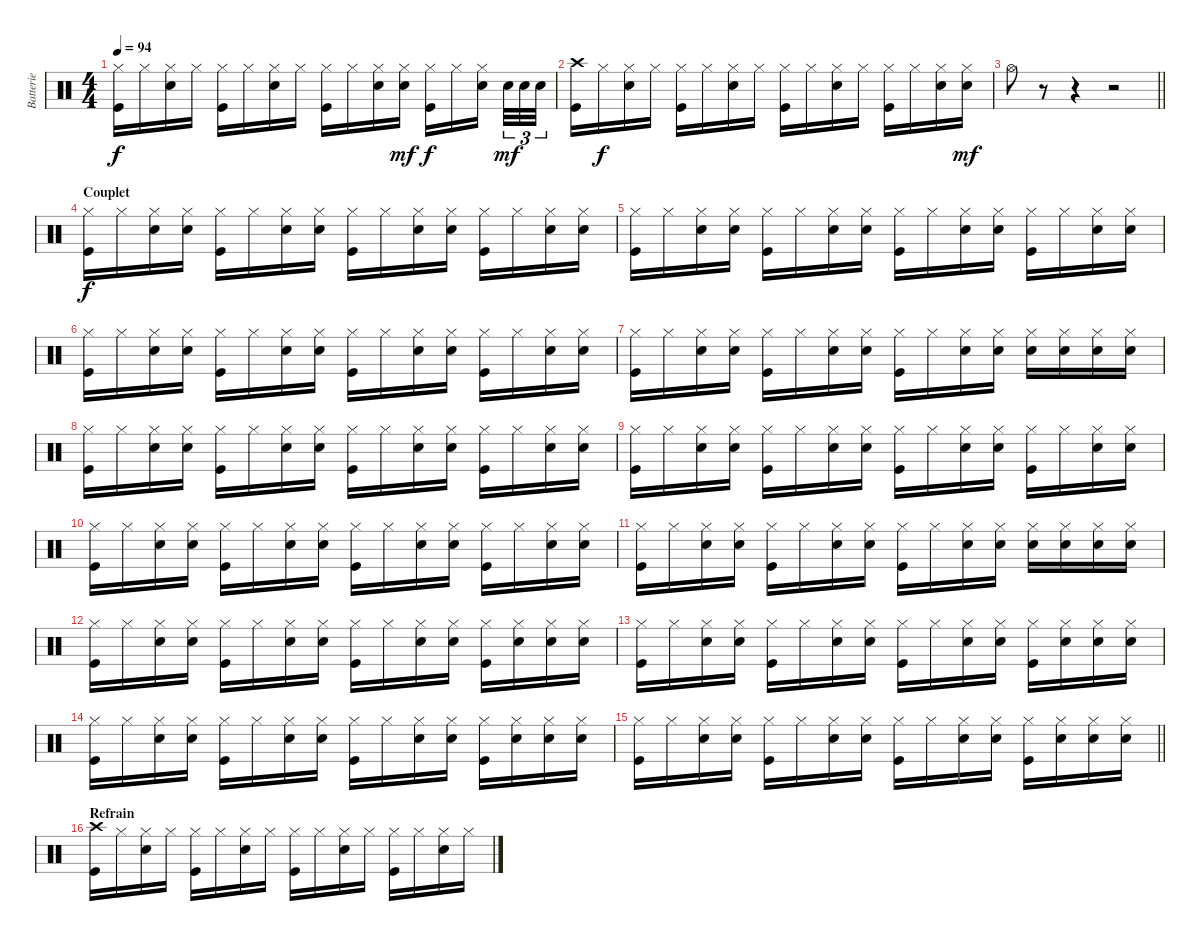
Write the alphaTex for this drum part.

\track ("Batterie" "Batterie") {instrument percussion}
\staff {score}
\articulation defaults
\ts (4 4)
\tempo 94
\clef neutral
\ks c
("Hi-Hat (closed)" "Kick (hit)").16{dy f} "Hi-Hat (closed)".16 ("Hi-Hat (closed)" "Snare (hit) 2").16 "Hi-Hat (closed)".16 ("Hi-Hat (closed)" "Kick (hit)").16 "Hi-Hat (closed)".16 ("Hi-Hat (closed)" "Snare (hit) 2").16 "Hi-Hat (closed)".16 ("Hi-Hat (closed)" "Kick (hit)").16 "Hi-Hat (closed)".16 ("Hi-Hat (closed)" "Snare (hit) 2").16 ("Hi-Hat (closed)" "Snare (hit) 2").16{dy mf} ("Hi-Hat (closed)" "Kick (hit)").16{dy f} "Hi-Hat (closed)".16 ("Hi-Hat (closed)" "Snare (hit) 2").16 "Snare (hit) 2".32{tu (3 2) dy mf} "Snare (hit) 2".32{tu (3 2)} "Snare (hit) 2".32{tu (3 2)} |
("Crash high (hit)" "Kick (hit)").16 "Hi-Hat (closed)".16{dy f} ("Hi-Hat (closed)" "Snare (hit) 2").16 "Hi-Hat (closed)".16 ("Hi-Hat (closed)" "Kick (hit)").16 "Hi-Hat (closed)".16 ("Hi-Hat (closed)" "Snare (hit) 2").16 "Hi-Hat (closed)".16 ("Hi-Hat (closed)" "Kick (hit)").16 "Hi-Hat (closed)".16 ("Hi-Hat (closed)" "Snare (hit) 2").16 "Hi-Hat (closed)".16 ("Hi-Hat (closed)" "Kick (hit)").16 "Hi-Hat (closed)".16 ("Hi-Hat (closed)" "Snare (hit) 2").16 ("Hi-Hat (closed)" "Snare (hit) 2").16{dy mf} |
\barLineRight lightlight "Hi-Hat (open)".8
r.8 r.4 r.2 |
\section ("" "Couplet")
("Hi-Hat (closed)" "Kick (hit)").16{dy f} "Hi-Hat (closed)".16 ("Hi-Hat (closed)" "Snare (hit) 2").16 ("Snare (hit) 2" "Hi-Hat (closed)").16 ("Hi-Hat (closed)" "Kick (hit)").16 "Hi-Hat (closed)".16 ("Hi-Hat (closed)" "Snare (hit) 2").16 ("Hi-Hat (closed)" "Snare (hit) 2").16 ("Hi-Hat (closed)" "Kick (hit)").16 "Hi-Hat (closed)".16 ("Hi-Hat (closed)" "Snare (hit) 2").16 ("Hi-Hat (closed)" "Snare (hit) 2").16 ("Hi-Hat (closed)" "Kick (hit)").16 "Hi-Hat (closed)".16 ("Hi-Hat (closed)" "Snare (hit) 2").16 ("Hi-Hat (closed)" "Snare (hit) 2").16 |
("Hi-Hat (closed)" "Kick (hit)").16 "Hi-Hat (closed)".16 ("Hi-Hat (closed)" "Snare (hit) 2").16 ("Snare (hit) 2" "Hi-Hat (closed)").16 ("Hi-Hat (closed)" "Kick (hit)").16 "Hi-Hat (closed)".16 ("Hi-Hat (closed)" "Snare (hit) 2").16 ("Hi-Hat (closed)" "Snare (hit) 2").16 ("Hi-Hat (closed)" "Kick (hit)").16 "Hi-Hat (closed)".16 ("Hi-Hat (closed)" "Snare (hit) 2").16 ("Hi-Hat (closed)" "Snare (hit) 2").16 ("Hi-Hat (closed)" "Kick (hit)").16 "Hi-Hat (closed)".16 ("Hi-Hat (closed)" "Snare (hit) 2").16 ("Hi-Hat (closed)" "Snare (hit) 2").16 |
("Hi-Hat (closed)" "Kick (hit)").16 "Hi-Hat (closed)".16 ("Hi-Hat (closed)" "Snare (hit) 2").16 ("Snare (hit) 2" "Hi-Hat (closed)").16 ("Hi-Hat (closed)" "Kick (hit)").16 "Hi-Hat (closed)".16 ("Hi-Hat (closed)" "Snare (hit) 2").16 ("Hi-Hat (closed)" "Snare (hit) 2").16 ("Hi-Hat (closed)" "Kick (hit)").16 "Hi-Hat (closed)".16 ("Hi-Hat (closed)" "Snare (hit) 2").16 ("Hi-Hat (closed)" "Snare (hit) 2").16 ("Hi-Hat (closed)" "Kick (hit)").16 "Hi-Hat (closed)".16 ("Hi-Hat (closed)" "Snare (hit) 2").16 ("Hi-Hat (closed)" "Snare (hit) 2").16 |
("Hi-Hat (closed)" "Kick (hit)").16 "Hi-Hat (closed)".16 ("Hi-Hat (closed)" "Snare (hit) 2").16 ("Snare (hit) 2" "Hi-Hat (closed)").16 ("Hi-Hat (closed)" "Kick (hit)").16 "Hi-Hat (closed)".16 ("Hi-Hat (closed)" "Snare (hit) 2").16 ("Hi-Hat (closed)" "Snare (hit) 2").16 ("Hi-Hat (closed)" "Kick (hit)").16 "Hi-Hat (closed)".16 ("Hi-Hat (closed)" "Snare (hit) 2").16 ("Hi-Hat (closed)" "Snare (hit) 2").16 ("Hi-Hat (closed)" "Snare (hit) 2").16 ("Hi-Hat (closed)" "Snare (hit) 2").16 ("Hi-Hat (closed)" "Snare (hit) 2").16 ("Hi-Hat (closed)" "Snare (hit) 2").16 |
("Hi-Hat (closed)" "Kick (hit)").16 "Hi-Hat (closed)".16 ("Hi-Hat (closed)" "Snare (hit) 2").16 ("Snare (hit) 2" "Hi-Hat (closed)").16 ("Hi-Hat (closed)" "Kick (hit)").16 "Hi-Hat (closed)".16 ("Hi-Hat (closed)" "Snare (hit) 2").16 ("Hi-Hat (closed)" "Snare (hit) 2").16 ("Hi-Hat (closed)" "Kick (hit)").16 "Hi-Hat (closed)".16 ("Hi-Hat (closed)" "Snare (hit) 2").16 ("Hi-Hat (closed)" "Snare (hit) 2").16 ("Hi-Hat (closed)" "Kick (hit)").16 "Hi-Hat (closed)".16 ("Hi-Hat (closed)" "Snare (hit) 2").16 ("Hi-Hat (closed)" "Snare (hit) 2").16 |
("Hi-Hat (closed)" "Kick (hit)").16 "Hi-Hat (closed)".16 ("Hi-Hat (closed)" "Snare (hit) 2").16 ("Snare (hit) 2" "Hi-Hat (closed)").16 ("Hi-Hat (closed)" "Kick (hit)").16 "Hi-Hat (closed)".16 ("Hi-Hat (closed)" "Snare (hit) 2").16 ("Hi-Hat (closed)" "Snare (hit) 2").16 ("Hi-Hat (closed)" "Kick (hit)").16 "Hi-Hat (closed)".16 ("Hi-Hat (closed)" "Snare (hit) 2").16 ("Hi-Hat (closed)" "Snare (hit) 2").16 ("Hi-Hat (closed)" "Kick (hit)").16 "Hi-Hat (closed)".16 ("Hi-Hat (closed)" "Snare (hit) 2").16 ("Hi-Hat (closed)" "Snare (hit) 2").16 |
("Hi-Hat (closed)" "Kick (hit)").16 "Hi-Hat (closed)".16 ("Hi-Hat (closed)" "Snare (hit) 2").16 ("Snare (hit) 2" "Hi-Hat (closed)").16 ("Hi-Hat (closed)" "Kick (hit)").16 "Hi-Hat (closed)".16 ("Hi-Hat (closed)" "Snare (hit) 2").16 ("Hi-Hat (closed)" "Snare (hit) 2").16 ("Hi-Hat (closed)" "Kick (hit)").16 "Hi-Hat (closed)".16 ("Hi-Hat (closed)" "Snare (hit) 2").16 ("Hi-Hat (closed)" "Snare (hit) 2").16 ("Hi-Hat (closed)" "Kick (hit)").16 "Hi-Hat (closed)".16 ("Hi-Hat (closed)" "Snare (hit) 2").16 ("Hi-Hat (closed)" "Snare (hit) 2").16 |
("Hi-Hat (closed)" "Kick (hit)").16 "Hi-Hat (closed)".16 ("Hi-Hat (closed)" "Snare (hit) 2").16 ("Snare (hit) 2" "Hi-Hat (closed)").16 ("Hi-Hat (closed)" "Kick (hit)").16 "Hi-Hat (closed)".16 ("Hi-Hat (closed)" "Snare (hit) 2").16 ("Hi-Hat (closed)" "Snare (hit) 2").16 ("Hi-Hat (closed)" "Kick (hit)").16 "Hi-Hat (closed)".16 ("Hi-Hat (closed)" "Snare (hit) 2").16 ("Hi-Hat (closed)" "Snare (hit) 2").16 ("Hi-Hat (closed)" "Snare (hit) 2").16 ("Hi-Hat (closed)" "Snare (hit) 2").16 ("Hi-Hat (closed)" "Snare (hit) 2").16 ("Hi-Hat (closed)" "Snare (hit) 2").16 |
("Hi-Hat (closed)" "Kick (hit)").16 "Hi-Hat (closed)".16 ("Hi-Hat (closed)" "Snare (hit) 2").16 ("Snare (hit) 2" "Hi-Hat (closed)").16 ("Hi-Hat (closed)" "Kick (hit)").16 "Hi-Hat (closed)".16 ("Hi-Hat (closed)" "Snare (hit) 2").16 ("Hi-Hat (closed)" "Snare (hit) 2").16 ("Hi-Hat (closed)" "Kick (hit)").16 "Hi-Hat (closed)".16 ("Hi-Hat (closed)" "Snare (hit) 2").16 ("Hi-Hat (closed)" "Snare (hit) 2").16 ("Hi-Hat (closed)" "Kick (hit)").16 ("Hi-Hat (closed)" "Snare (hit) 2").16 ("Hi-Hat (closed)" "Snare (hit) 2").16 ("Hi-Hat (closed)" "Snare (hit) 2").16 |
("Hi-Hat (closed)" "Kick (hit)").16 "Hi-Hat (closed)".16 ("Hi-Hat (closed)" "Snare (hit) 2").16 ("Snare (hit) 2" "Hi-Hat (closed)").16 ("Hi-Hat (closed)" "Kick (hit)").16 "Hi-Hat (closed)".16 ("Hi-Hat (closed)" "Snare (hit) 2").16 ("Hi-Hat (closed)" "Snare (hit) 2").16 ("Hi-Hat (closed)" "Kick (hit)").16 "Hi-Hat (closed)".16 ("Hi-Hat (closed)" "Snare (hit) 2").16 ("Hi-Hat (closed)" "Snare (hit) 2").16 ("Hi-Hat (closed)" "Kick (hit)").16 ("Hi-Hat (closed)" "Snare (hit) 2").16 ("Hi-Hat (closed)" "Snare (hit) 2").16 ("Hi-Hat (closed)" "Snare (hit) 2").16 |
("Hi-Hat (closed)" "Kick (hit)").16 "Hi-Hat (closed)".16 ("Hi-Hat (closed)" "Snare (hit) 2").16 ("Snare (hit) 2" "Hi-Hat (closed)").16 ("Hi-Hat (closed)" "Kick (hit)").16 "Hi-Hat (closed)".16 ("Hi-Hat (closed)" "Snare (hit) 2").16 ("Hi-Hat (closed)" "Snare (hit) 2").16 ("Hi-Hat (closed)" "Kick (hit)").16 "Hi-Hat (closed)".16 ("Hi-Hat (closed)" "Snare (hit) 2").16 ("Hi-Hat (closed)" "Snare (hit) 2").16 ("Hi-Hat (closed)" "Kick (hit)").16 ("Hi-Hat (closed)" "Snare (hit) 2").16 ("Hi-Hat (closed)" "Snare (hit) 2").16 ("Hi-Hat (closed)" "Snare (hit) 2").16 |
\barLineRight lightlight
("Hi-Hat (closed)" "Kick (hit)").16 "Hi-Hat (closed)".16 ("Hi-Hat (closed)" "Snare (hit) 2").16 ("Snare (hit) 2" "Hi-Hat (closed)").16 ("Hi-Hat (closed)" "Kick (hit)").16 "Hi-Hat (closed)".16 ("Hi-Hat (closed)" "Snare (hit) 2").16 ("Hi-Hat (closed)" "Snare (hit) 2").16 ("Hi-Hat (closed)" "Kick (hit)").16 "Hi-Hat (closed)".16 ("Hi-Hat (closed)" "Snare (hit) 2").16 ("Hi-Hat (closed)" "Snare (hit) 2").16 ("Hi-Hat (closed)" "Kick (hit)").16 ("Hi-Hat (closed)" "Snare (hit) 2").16 ("Hi-Hat (closed)" "Snare (hit) 2").16 ("Hi-Hat (closed)" "Snare (hit) 2").16 |
\section ("" "Refrain")
("Crash high (hit)" "Kick (hit)").16 "Hi-Hat (closed)".16 ("Hi-Hat (closed)" "Snare (hit) 2").16 "Hi-Hat (closed)".16 ("Hi-Hat (closed)" "Kick (hit)").16 "Hi-Hat (closed)".16 ("Hi-Hat (closed)" "Snare (hit) 2").16 "Hi-Hat (closed)".16 ("Hi-Hat (closed)" "Kick (hit)").16 "Hi-Hat (closed)".16 ("Hi-Hat (closed)" "Snare (hit) 2").16 "Hi-Hat (closed)".16 ("Hi-Hat (closed)" "Kick (hit)").16 "Hi-Hat (closed)".16 ("Hi-Hat (closed)" "Snare (hit) 2").16 "Hi-Hat (closed)".16
